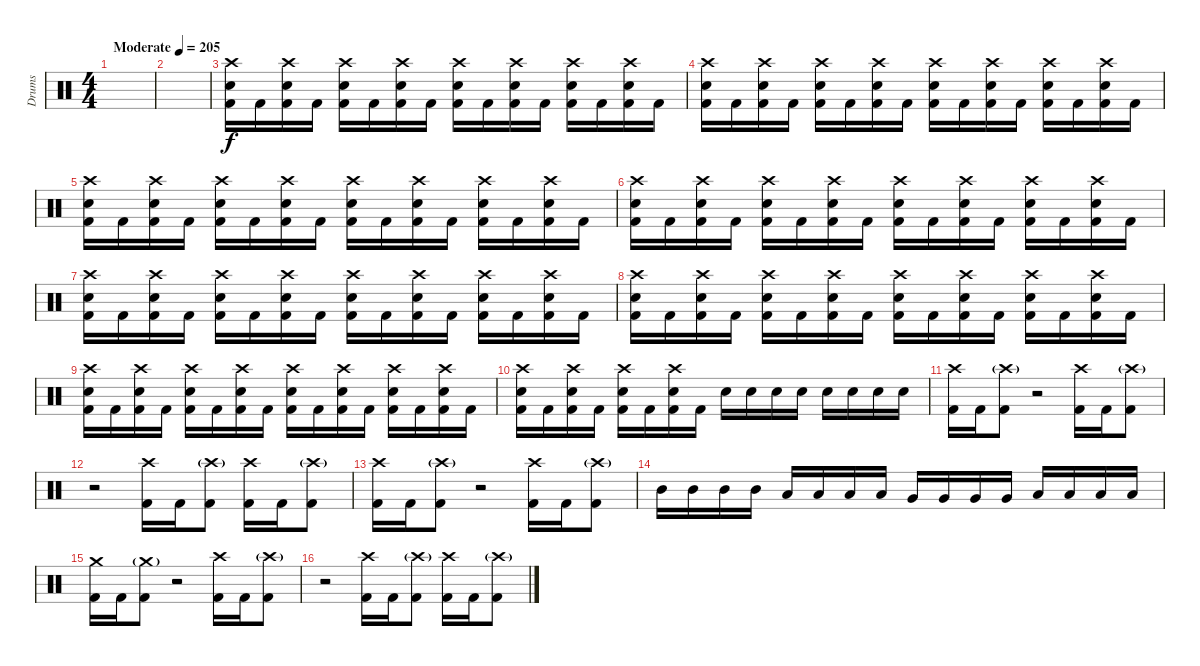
\track ("Drums" "Drums") {instrument percussion}
\staff {score}
\articulation defaults
\ts (4 4)
\tempo (205 "Moderate")
\clef neutral
\ks c
|
|
("Crash high (hit)" "Snare (hit) 2" "Kick (hit) 2").16 "Kick (hit) 2".16 ("Crash high (hit)" "Snare (hit) 2" "Kick (hit) 2").16 "Kick (hit) 2".16 ("Crash high (hit)" "Snare (hit) 2" "Kick (hit) 2").16 "Kick (hit) 2".16 ("Crash high (hit)" "Snare (hit) 2" "Kick (hit) 2").16 "Kick (hit) 2".16 ("Crash high (hit)" "Snare (hit) 2" "Kick (hit) 2").16 "Kick (hit) 2".16 ("Crash high (hit)" "Snare (hit) 2" "Kick (hit) 2").16 "Kick (hit) 2".16 ("Crash high (hit)" "Snare (hit) 2" "Kick (hit) 2").16 "Kick (hit) 2".16 ("Crash high (hit)" "Snare (hit) 2" "Kick (hit) 2").16 "Kick (hit) 2".16 |
("Crash high (hit)" "Snare (hit) 2" "Kick (hit) 2").16 "Kick (hit) 2".16 ("Crash high (hit)" "Snare (hit) 2" "Kick (hit) 2").16 "Kick (hit) 2".16 ("Crash high (hit)" "Snare (hit) 2" "Kick (hit) 2").16 "Kick (hit) 2".16 ("Crash high (hit)" "Snare (hit) 2" "Kick (hit) 2").16 "Kick (hit) 2".16 ("Crash high (hit)" "Snare (hit) 2" "Kick (hit) 2").16 "Kick (hit) 2".16 ("Crash high (hit)" "Snare (hit) 2" "Kick (hit) 2").16 "Kick (hit) 2".16 ("Crash high (hit)" "Snare (hit) 2" "Kick (hit) 2").16 "Kick (hit) 2".16 ("Crash high (hit)" "Snare (hit) 2" "Kick (hit) 2").16 "Kick (hit) 2".16 |
("Crash high (hit)" "Snare (hit) 2" "Kick (hit) 2").16 "Kick (hit) 2".16 ("Crash high (hit)" "Snare (hit) 2" "Kick (hit) 2").16 "Kick (hit) 2".16 ("Crash high (hit)" "Snare (hit) 2" "Kick (hit) 2").16 "Kick (hit) 2".16 ("Crash high (hit)" "Snare (hit) 2" "Kick (hit) 2").16 "Kick (hit) 2".16 ("Crash high (hit)" "Snare (hit) 2" "Kick (hit) 2").16 "Kick (hit) 2".16 ("Crash high (hit)" "Snare (hit) 2" "Kick (hit) 2").16 "Kick (hit) 2".16 ("Crash high (hit)" "Snare (hit) 2" "Kick (hit) 2").16 "Kick (hit) 2".16 ("Crash high (hit)" "Snare (hit) 2" "Kick (hit) 2").16 "Kick (hit) 2".16 |
("Crash high (hit)" "Snare (hit) 2" "Kick (hit) 2").16 "Kick (hit) 2".16 ("Crash high (hit)" "Snare (hit) 2" "Kick (hit) 2").16 "Kick (hit) 2".16 ("Crash high (hit)" "Snare (hit) 2" "Kick (hit) 2").16 "Kick (hit) 2".16 ("Crash high (hit)" "Snare (hit) 2" "Kick (hit) 2").16 "Kick (hit) 2".16 ("Crash high (hit)" "Snare (hit) 2" "Kick (hit) 2").16 "Kick (hit) 2".16 ("Crash high (hit)" "Snare (hit) 2" "Kick (hit) 2").16 "Kick (hit) 2".16 ("Crash high (hit)" "Snare (hit) 2" "Kick (hit) 2").16 "Kick (hit) 2".16 ("Crash high (hit)" "Snare (hit) 2" "Kick (hit) 2").16 "Kick (hit) 2".16 |
("Crash high (hit)" "Snare (hit) 2" "Kick (hit) 2").16 "Kick (hit) 2".16 ("Crash high (hit)" "Snare (hit) 2" "Kick (hit) 2").16 "Kick (hit) 2".16 ("Crash high (hit)" "Snare (hit) 2" "Kick (hit) 2").16 "Kick (hit) 2".16 ("Crash high (hit)" "Snare (hit) 2" "Kick (hit) 2").16 "Kick (hit) 2".16 ("Crash high (hit)" "Snare (hit) 2" "Kick (hit) 2").16 "Kick (hit) 2".16 ("Crash high (hit)" "Snare (hit) 2" "Kick (hit) 2").16 "Kick (hit) 2".16 ("Crash high (hit)" "Snare (hit) 2" "Kick (hit) 2").16 "Kick (hit) 2".16 ("Crash high (hit)" "Snare (hit) 2" "Kick (hit) 2").16 "Kick (hit) 2".16 |
("Crash high (hit)" "Snare (hit) 2" "Kick (hit) 2").16 "Kick (hit) 2".16 ("Crash high (hit)" "Snare (hit) 2" "Kick (hit) 2").16 "Kick (hit) 2".16 ("Crash high (hit)" "Snare (hit) 2" "Kick (hit) 2").16 "Kick (hit) 2".16 ("Crash high (hit)" "Snare (hit) 2" "Kick (hit) 2").16 "Kick (hit) 2".16 ("Crash high (hit)" "Snare (hit) 2" "Kick (hit) 2").16 "Kick (hit) 2".16 ("Crash high (hit)" "Snare (hit) 2" "Kick (hit) 2").16 "Kick (hit) 2".16 ("Crash high (hit)" "Snare (hit) 2" "Kick (hit) 2").16 "Kick (hit) 2".16 ("Crash high (hit)" "Snare (hit) 2" "Kick (hit) 2").16 "Kick (hit) 2".16 |
("Crash high (hit)" "Snare (hit) 2" "Kick (hit) 2").16 "Kick (hit) 2".16 ("Crash high (hit)" "Snare (hit) 2" "Kick (hit) 2").16 "Kick (hit) 2".16 ("Crash high (hit)" "Snare (hit) 2" "Kick (hit) 2").16 "Kick (hit) 2".16 ("Crash high (hit)" "Snare (hit) 2" "Kick (hit) 2").16 "Kick (hit) 2".16 ("Crash high (hit)" "Snare (hit) 2" "Kick (hit) 2").16 "Kick (hit) 2".16 ("Crash high (hit)" "Snare (hit) 2" "Kick (hit) 2").16 "Kick (hit) 2".16 ("Crash high (hit)" "Snare (hit) 2" "Kick (hit) 2").16 "Kick (hit) 2".16 ("Crash high (hit)" "Snare (hit) 2" "Kick (hit) 2").16 "Kick (hit) 2".16 |
("Crash high (hit)" "Snare (hit) 2" "Kick (hit) 2").16 "Kick (hit) 2".16 ("Crash high (hit)" "Snare (hit) 2" "Kick (hit) 2").16 "Kick (hit) 2".16 ("Crash high (hit)" "Snare (hit) 2" "Kick (hit) 2").16 "Kick (hit) 2".16 ("Crash high (hit)" "Snare (hit) 2" "Kick (hit) 2").16 "Kick (hit) 2".16 "Snare (hit) 2".16 "Snare (hit) 2".16 "Snare (hit) 2".16 "Snare (hit) 2".16 "Snare (hit) 2".16 "Snare (hit) 2".16 "Snare (hit) 2".16 "Snare (hit) 2".16 |
("Crash high (hit)" "Kick (hit) 2").16 "Kick (hit) 2".16 ("Crash high (hit)"{g} "Kick (hit) 2").8 r.2 ("Crash high (hit)" "Kick (hit) 2").16 "Kick (hit) 2".16 ("Crash high (hit)"{g} "Kick (hit) 2").8 |
r.2 ("Crash high (hit)" "Kick (hit) 2").16 "Kick (hit) 2".16 ("Crash high (hit)"{g} "Kick (hit) 2").8 ("Crash high (hit)" "Kick (hit) 2").16 "Kick (hit) 2".16 ("Crash high (hit)"{g} "Kick (hit) 2").8 |
("Crash high (hit)" "Kick (hit) 2").16 "Kick (hit) 2".16 ("Crash high (hit)"{g} "Kick (hit) 2").8 r.2 ("Crash high (hit)" "Kick (hit) 2").16 "Kick (hit) 2".16 ("Crash high (hit)"{g} "Kick (hit) 2").8 |
"Mid Tom (hit)".16 "Mid Tom (hit)".16 "Mid Tom (hit)".16 "Mid Tom (hit)".16 "Low Tom (hit)".16 "Low Tom (hit)".16 "Low Tom (hit)".16 "Low Tom (hit)".16 "Very Low Tom (hit)".16 "Very Low Tom (hit)".16 "Very Low Tom (hit)".16 "Very Low Tom (hit)".16 "Low Floor Tom (hit)".16 "Low Floor Tom (hit)".16 "Low Floor Tom (hit)".16 "Low Floor Tom (hit)".16 |
("Crash medium (hit)" "Kick (hit) 2").16 "Kick (hit) 2".16 ("Crash medium (hit)"{g} "Kick (hit) 2").8 r.2 ("Crash high (hit)" "Kick (hit) 2").16 "Kick (hit) 2".16 ("Crash high (hit)"{g} "Kick (hit) 2").8 |
r.2 ("Crash high (hit)" "Kick (hit) 2").16 "Kick (hit) 2".16 ("Crash high (hit)"{g} "Kick (hit) 2").8 ("Crash high (hit)" "Kick (hit) 2").16 "Kick (hit) 2".16 ("Crash high (hit)"{g} "Kick (hit) 2").8
